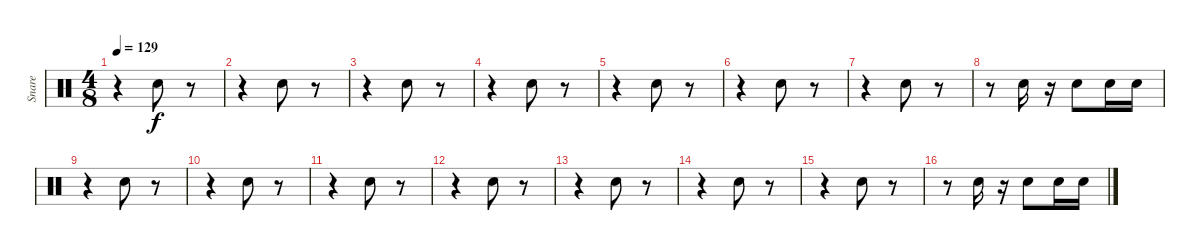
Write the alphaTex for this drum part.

\track ("Snare" "Snare") {instrument percussion}
\staff {score}
\articulation defaults
\ts (4 8)
\tempo 129
\clef neutral
\ks c
r.4{dy f} "Snare (hit) 2".8 r.8 |
r.4 "Snare (hit) 2".8 r.8 |
r.4 "Snare (hit) 2".8 r.8 |
r.4 "Snare (hit) 2".8 r.8 |
r.4 "Snare (hit) 2".8 r.8 |
r.4 "Snare (hit) 2".8 r.8 |
r.4 "Snare (hit) 2".8 r.8 |
r.8 "Snare (hit) 2".16 r.16 "Snare (hit) 2".8 "Snare (hit) 2".16 "Snare (hit) 2".16 |
r.4 "Snare (hit) 2".8 r.8 |
r.4 "Snare (hit) 2".8 r.8 |
r.4 "Snare (hit) 2".8 r.8 |
r.4 "Snare (hit) 2".8 r.8 |
r.4 "Snare (hit) 2".8 r.8 |
r.4 "Snare (hit) 2".8 r.8 |
r.4 "Snare (hit) 2".8 r.8 |
r.8 "Snare (hit) 2".16 r.16 "Snare (hit) 2".8 "Snare (hit) 2".16 "Snare (hit) 2".16
